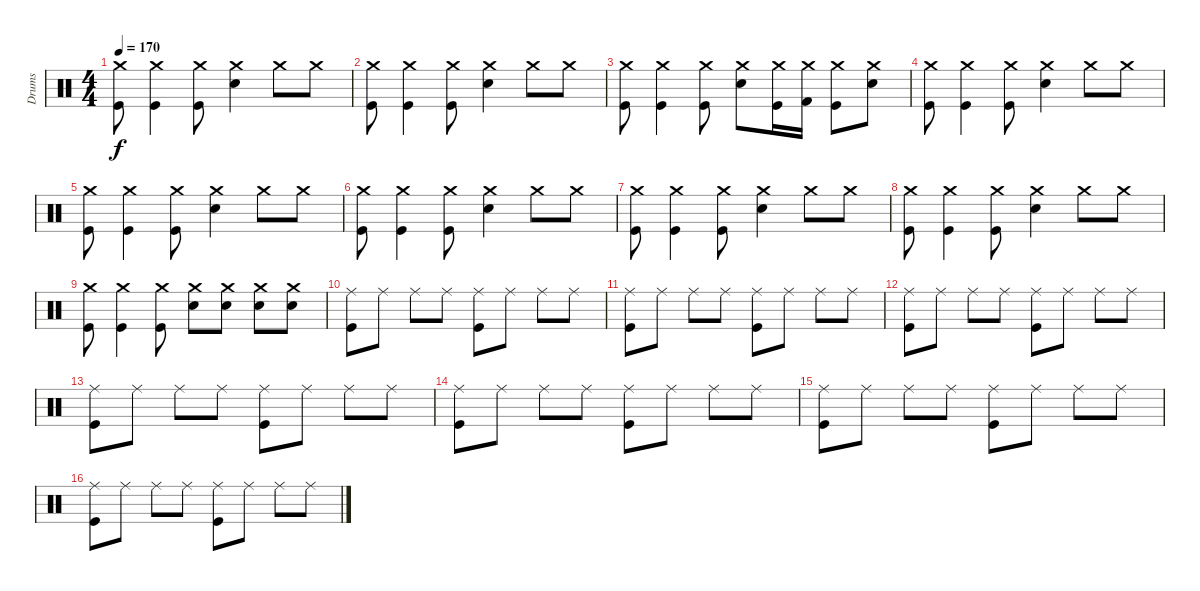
\track ("Drums" "Drums") {instrument percussion}
\staff {score}
\articulation defaults
\ts (4 4)
\tempo 170
\clef neutral
\ks c
("Crash medium (hit)" "Kick (hit)").8{dy f} ("Crash medium (hit)" "Kick (hit)").4 ("Crash medium (hit)" "Kick (hit)").8 ("Crash medium (hit)" "Electric Snare (hit)").4 "Crash medium (hit)".8 "Crash medium (hit)".8 |
("Crash medium (hit)" "Kick (hit)").8 ("Crash medium (hit)" "Kick (hit)").4 ("Crash medium (hit)" "Kick (hit)").8 ("Crash medium (hit)" "Electric Snare (hit)").4 "Crash medium (hit)".8 "Crash medium (hit)".8 |
("Crash medium (hit)" "Kick (hit)").8 ("Crash medium (hit)" "Kick (hit)").4 ("Crash medium (hit)" "Kick (hit)").8 ("Crash medium (hit)" "Electric Snare (hit)").8 ("Crash medium (hit)" "Kick (hit)").16 ("Crash medium (hit)" "Kick (hit) 2").16 ("Crash medium (hit)" "Kick (hit)").8 ("Crash medium (hit)" "Electric Snare (hit)").8 |
("Crash medium (hit)" "Kick (hit)").8 ("Crash medium (hit)" "Kick (hit)").4 ("Crash medium (hit)" "Kick (hit)").8 ("Crash medium (hit)" "Electric Snare (hit)").4 "Crash medium (hit)".8 "Crash medium (hit)".8 |
("Crash medium (hit)" "Kick (hit)").8 ("Crash medium (hit)" "Kick (hit)").4 ("Crash medium (hit)" "Kick (hit)").8 ("Crash medium (hit)" "Electric Snare (hit)").4 "Crash medium (hit)".8 "Crash medium (hit)".8 |
("Crash medium (hit)" "Kick (hit)").8 ("Crash medium (hit)" "Kick (hit)").4 ("Crash medium (hit)" "Kick (hit)").8 ("Crash medium (hit)" "Electric Snare (hit)").4 "Crash medium (hit)".8 "Crash medium (hit)".8 |
("Crash medium (hit)" "Kick (hit)").8 ("Crash medium (hit)" "Kick (hit)").4 ("Crash medium (hit)" "Kick (hit)").8 ("Crash medium (hit)" "Electric Snare (hit)").4 "Crash medium (hit)".8 "Crash medium (hit)".8 |
("Crash medium (hit)" "Kick (hit)").8 ("Crash medium (hit)" "Kick (hit)").4 ("Crash medium (hit)" "Kick (hit)").8 ("Crash medium (hit)" "Electric Snare (hit)").4 "Crash medium (hit)".8 "Crash medium (hit)".8 |
("Crash medium (hit)" "Kick (hit)").8 ("Crash medium (hit)" "Kick (hit)").4 ("Crash medium (hit)" "Kick (hit)").8 ("Crash medium (hit)" "Electric Snare (hit)").8 ("Crash medium (hit)" "Electric Snare (hit)").8 ("Crash medium (hit)" "Electric Snare (hit)").8 ("Crash medium (hit)" "Electric Snare (hit)").8 |
("Ride (middle)" "Kick (hit)").8 "Ride (middle)".8 "Ride (middle)".8 "Ride (middle)".8 ("Ride (middle)" "Kick (hit)").8 "Ride (middle)".8 "Ride (middle)".8 "Ride (middle)".8 |
("Ride (middle)" "Kick (hit)").8 "Ride (middle)".8 "Ride (middle)".8 "Ride (middle)".8 ("Ride (middle)" "Kick (hit)").8 "Ride (middle)".8 "Ride (middle)".8 "Ride (middle)".8 |
("Ride (middle)" "Kick (hit)").8 "Ride (middle)".8 "Ride (middle)".8 "Ride (middle)".8 ("Ride (middle)" "Kick (hit)").8 "Ride (middle)".8 "Ride (middle)".8 "Ride (middle)".8 |
("Ride (middle)" "Kick (hit)").8 "Ride (middle)".8 "Ride (middle)".8 "Ride (middle)".8 ("Ride (middle)" "Kick (hit)").8 "Ride (middle)".8 "Ride (middle)".8 "Ride (middle)".8 |
("Ride (middle)" "Kick (hit)").8 "Ride (middle)".8 "Ride (middle)".8 "Ride (middle)".8 ("Ride (middle)" "Kick (hit)").8 "Ride (middle)".8 "Ride (middle)".8 "Ride (middle)".8 |
("Ride (middle)" "Kick (hit)").8 "Ride (middle)".8 "Ride (middle)".8 "Ride (middle)".8 ("Ride (middle)" "Kick (hit)").8 "Ride (middle)".8 "Ride (middle)".8 "Ride (middle)".8 |
("Ride (middle)" "Kick (hit)").8 "Ride (middle)".8 "Ride (middle)".8 "Ride (middle)".8 ("Ride (middle)" "Kick (hit)").8 "Ride (middle)".8 "Ride (middle)".8 "Ride (middle)".8
